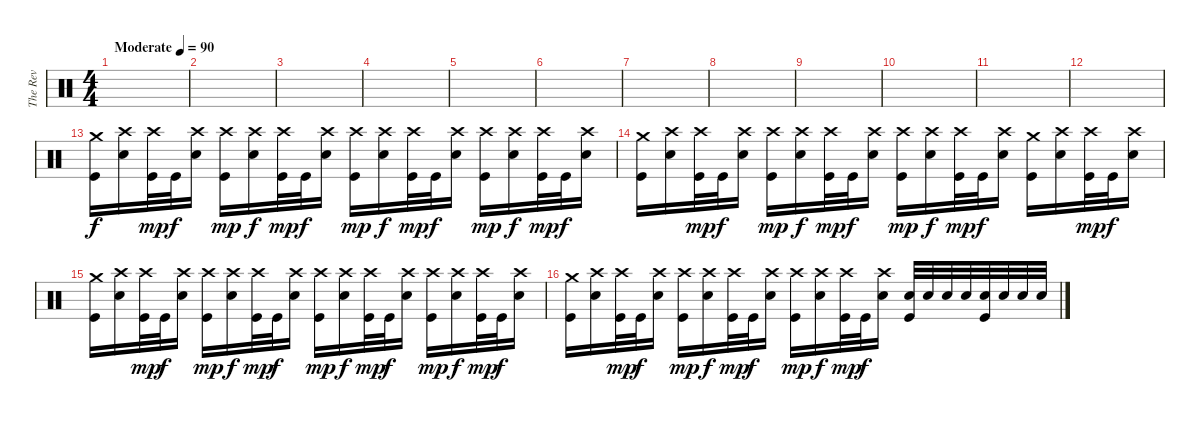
\track ("The Rev" "The Rev") {instrument percussion}
\staff {score}
\articulation defaults
\ts (4 4)
\tempo (90 "Moderate")
\clef neutral
\ks c
|
|
|
|
|
|
|
|
|
|
|
|
("Crash medium (hit)" "Kick (hit)").16 ("Crash high (hit)" "Electric Snare (hit)").16 ("Crash high (hit)" "Kick (hit)").32{dy mp} "Kick (hit)".32{dy f} ("Crash high (hit)" "Electric Snare (hit)").16 ("Crash high (hit)" "Kick (hit)").16{dy mp} ("Crash high (hit)" "Electric Snare (hit)").16{dy f} ("Crash high (hit)" "Kick (hit)").32{dy mp} "Kick (hit)".32{dy f} ("Crash high (hit)" "Electric Snare (hit)").16 ("Crash high (hit)" "Kick (hit)").16{dy mp} ("Crash high (hit)" "Electric Snare (hit)").16{dy f} ("Crash high (hit)" "Kick (hit)").32{dy mp} "Kick (hit)".32{dy f} ("Crash high (hit)" "Electric Snare (hit)").16 ("Crash high (hit)" "Kick (hit)").16{dy mp} ("Crash high (hit)" "Electric Snare (hit)").16{dy f} ("Crash high (hit)" "Kick (hit)").32{dy mp} "Kick (hit)".32{dy f} ("Crash high (hit)" "Electric Snare (hit)").16 |
("Crash medium (hit)" "Kick (hit)").16 ("Crash high (hit)" "Electric Snare (hit)").16 ("Crash high (hit)" "Kick (hit)").32{dy mp} "Kick (hit)".32{dy f} ("Crash high (hit)" "Electric Snare (hit)").16 ("Crash high (hit)" "Kick (hit)").16{dy mp} ("Crash high (hit)" "Electric Snare (hit)").16{dy f} ("Crash high (hit)" "Kick (hit)").32{dy mp} "Kick (hit)".32{dy f} ("Crash high (hit)" "Electric Snare (hit)").16 ("Crash high (hit)" "Kick (hit)").16{dy mp} ("Crash high (hit)" "Electric Snare (hit)").16{dy f} ("Crash high (hit)" "Kick (hit)").32{dy mp} "Kick (hit)".32{dy f} ("Crash high (hit)" "Electric Snare (hit)").16 ("Crash medium (hit)" "Kick (hit)").16 ("Crash high (hit)" "Electric Snare (hit)").16 ("Crash high (hit)" "Kick (hit)").32{dy mp} "Kick (hit)".32{dy f} ("Crash high (hit)" "Electric Snare (hit)").16 |
("Crash medium (hit)" "Kick (hit)").16 ("Crash high (hit)" "Electric Snare (hit)").16 ("Crash high (hit)" "Kick (hit)").32{dy mp} "Kick (hit)".32{dy f} ("Crash high (hit)" "Electric Snare (hit)").16 ("Crash high (hit)" "Kick (hit)").16{dy mp} ("Crash high (hit)" "Electric Snare (hit)").16{dy f} ("Crash high (hit)" "Kick (hit)").32{dy mp} "Kick (hit)".32{dy f} ("Crash high (hit)" "Electric Snare (hit)").16 ("Crash high (hit)" "Kick (hit)").16{dy mp} ("Crash high (hit)" "Electric Snare (hit)").16{dy f} ("Crash high (hit)" "Kick (hit)").32{dy mp} "Kick (hit)".32{dy f} ("Crash high (hit)" "Electric Snare (hit)").16 ("Crash high (hit)" "Kick (hit)").16{dy mp} ("Crash high (hit)" "Electric Snare (hit)").16{dy f} ("Crash high (hit)" "Kick (hit)").32{dy mp} "Kick (hit)".32{dy f} ("Crash high (hit)" "Electric Snare (hit)").16 |
("Crash medium (hit)" "Kick (hit)").16 ("Crash high (hit)" "Electric Snare (hit)").16 ("Crash high (hit)" "Kick (hit)").32{dy mp} "Kick (hit)".32{dy f} ("Crash high (hit)" "Electric Snare (hit)").16 ("Crash high (hit)" "Kick (hit)").16{dy mp} ("Crash high (hit)" "Electric Snare (hit)").16{dy f} ("Crash high (hit)" "Kick (hit)").32{dy mp} "Kick (hit)".32{dy f} ("Crash high (hit)" "Electric Snare (hit)").16 ("Crash high (hit)" "Kick (hit)").16{dy mp} ("Crash high (hit)" "Electric Snare (hit)").16{dy f} ("Crash high (hit)" "Kick (hit)").32{dy mp} "Kick (hit)".32{dy f} ("Crash high (hit)" "Electric Snare (hit)").16 ("Electric Snare (hit)" "Kick (hit)").32 "Electric Snare (hit)".32 "Electric Snare (hit)".32 "Electric Snare (hit)".32 ("Electric Snare (hit)" "Kick (hit)").32 "Electric Snare (hit)".32 "Electric Snare (hit)".32 "Electric Snare (hit)".32
